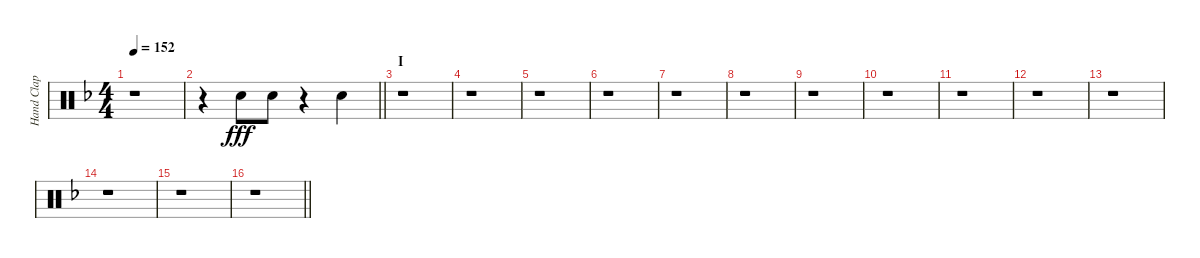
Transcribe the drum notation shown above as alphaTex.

\track ("Hand Clap" "Hand Clap") {instrument percussion}
\staff {score}
\articulation defaults
\ts (4 4)
\tempo 152
\clef neutral
\ks f
r.1{dy fff} |
\barLineRight lightlight
r.4 "Hand Clap (hit)".8 "Hand Clap (hit)".8 r.4 "Hand Clap (hit)".4 |
\section ("" "I")
r.1 |
r.1 |
r.1 |
r.1 |
r.1 |
r.1 |
r.1 |
r.1 |
r.1 |
r.1 |
r.1 |
r.1 |
r.1 |
\barLineRight lightlight
r.1
